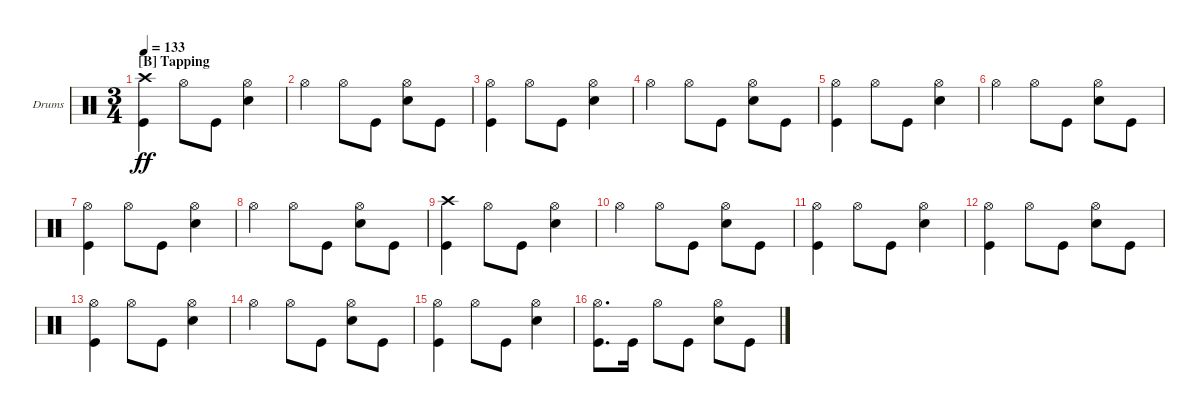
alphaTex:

\bracketExtendMode groupsimilarinstruments
\firstSystemTrackNameOrientation horizontal
\otherSystemsTrackNameOrientation horizontal
\track ("Drumkit" "Drums") {instrument percussion}
\staff {score}
\articulation defaults
\ts (3 4)
\section ("B" "Tapping")
\tempo 133
\clef neutral
\ks c
("Kick (hit)" "Crash high (hit)").4{dy ff} "Hi-Hat (open)".8 "Kick (hit)".8 ("Snare (hit) 2" "Hi-Hat (open)").4 |
"Hi-Hat (open)".4 "Hi-Hat (open)".8 "Kick (hit)".8 ("Snare (hit) 2" "Hi-Hat (open)").8 "Kick (hit)".8 |
("Kick (hit)" "Hi-Hat (open)").4 "Hi-Hat (open)".8 "Kick (hit)".8 ("Snare (hit) 2" "Hi-Hat (open)").4 |
"Hi-Hat (open)".4 "Hi-Hat (open)".8 "Kick (hit)".8 ("Snare (hit) 2" "Hi-Hat (open)").8 "Kick (hit)".8 |
("Kick (hit)" "Hi-Hat (open)").4 "Hi-Hat (open)".8 "Kick (hit)".8 ("Snare (hit) 2" "Hi-Hat (open)").4 |
"Hi-Hat (open)".4 "Hi-Hat (open)".8 "Kick (hit)".8 ("Snare (hit) 2" "Hi-Hat (open)").8 "Kick (hit)".8 |
("Kick (hit)" "Hi-Hat (open)").4 "Hi-Hat (open)".8 "Kick (hit)".8 ("Snare (hit) 2" "Hi-Hat (open)").4 |
"Hi-Hat (open)".4 "Hi-Hat (open)".8 "Kick (hit)".8 ("Snare (hit) 2" "Hi-Hat (open)").8 "Kick (hit)".8 |
("Kick (hit)" "Crash high (hit)").4 "Hi-Hat (open)".8 "Kick (hit)".8 ("Snare (hit) 2" "Hi-Hat (open)").4 |
"Hi-Hat (open)".4 "Hi-Hat (open)".8 "Kick (hit)".8 ("Snare (hit) 2" "Hi-Hat (open)").8 "Kick (hit)".8 |
("Kick (hit)" "Hi-Hat (open)").4 "Hi-Hat (open)".8 "Kick (hit)".8 ("Snare (hit) 2" "Hi-Hat (open)").4 |
("Kick (hit)" "Hi-Hat (open)").4 "Hi-Hat (open)".8 "Kick (hit)".8 ("Snare (hit) 2" "Hi-Hat (open)").8 "Kick (hit)".8 |
("Kick (hit)" "Hi-Hat (open)").4 "Hi-Hat (open)".8 "Kick (hit)".8 ("Snare (hit) 2" "Hi-Hat (open)").4 |
"Hi-Hat (open)".4 "Hi-Hat (open)".8 "Kick (hit)".8 ("Snare (hit) 2" "Hi-Hat (open)").8 "Kick (hit)".8 |
("Kick (hit)" "Hi-Hat (open)").4 "Hi-Hat (open)".8 "Kick (hit)".8 ("Snare (hit) 2" "Hi-Hat (open)").4 |
("Kick (hit)" "Hi-Hat (open)").8{d} "Kick (hit)".16 "Hi-Hat (open)".8 "Kick (hit)".8 ("Snare (hit) 2" "Hi-Hat (open)").8 "Kick (hit)".8
